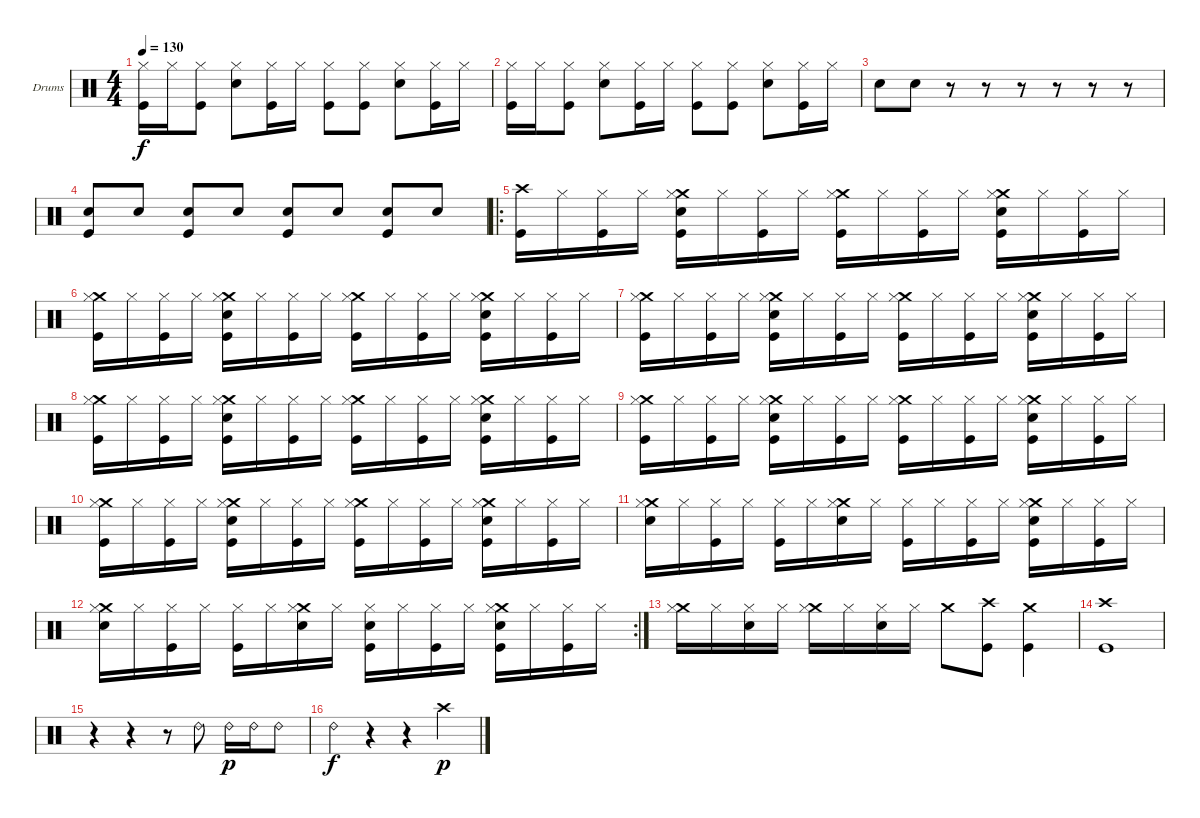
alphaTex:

\bracketExtendMode groupsimilarinstruments
\firstSystemTrackNameOrientation horizontal
\otherSystemsTrackNameOrientation horizontal
\track ("Drumkit" "Drums") {instrument percussion}
\staff {score}
\articulation defaults
\ts (4 4)
\tempo 130
\clef neutral
\ks c
("Hi-Hat (closed)" "Kick (hit)").16{dy f} "Hi-Hat (closed)".16 ("Hi-Hat (closed)" "Kick (hit)").8 ("Hi-Hat (closed)" "Snare (hit) 2").8 ("Hi-Hat (closed)" "Kick (hit)").16 "Hi-Hat (closed)".16 ("Hi-Hat (closed)" "Kick (hit)").8 ("Hi-Hat (closed)" "Kick (hit)").8 ("Hi-Hat (closed)" "Snare (hit) 2").8 ("Hi-Hat (closed)" "Kick (hit)").16 "Hi-Hat (closed)".16 |
("Hi-Hat (closed)" "Kick (hit)").16 "Hi-Hat (closed)".16 ("Hi-Hat (closed)" "Kick (hit)").8 ("Hi-Hat (closed)" "Snare (hit) 2").8 ("Hi-Hat (closed)" "Kick (hit)").16 "Hi-Hat (closed)".16 ("Hi-Hat (closed)" "Kick (hit)").8 ("Hi-Hat (closed)" "Kick (hit)").8 ("Hi-Hat (closed)" "Snare (hit) 2").8 ("Hi-Hat (closed)" "Kick (hit)").16 "Hi-Hat (closed)".16 |
"Snare (hit) 2".8 "Snare (hit) 2".8 r.8 r.8 r.8 r.8 r.8 r.8 |
("Snare (hit) 2" "Kick (hit)").8 "Snare (hit) 2".8 ("Snare (hit) 2" "Kick (hit)").8 "Snare (hit) 2".8 ("Snare (hit) 2" "Kick (hit)").8 "Snare (hit) 2".8 ("Snare (hit) 2" "Kick (hit)").8 "Snare (hit) 2".8 |
\ro
("Crash high (hit)" "Kick (hit)").16 "Hi-Hat (closed)".16 ("Hi-Hat (closed)" "Kick (hit)").16 "Hi-Hat (closed)".16 ("Crash medium (hit)" "Hi-Hat (closed)" "Snare (hit) 2" "Kick (hit)").16 "Hi-Hat (closed)".16 ("Hi-Hat (closed)" "Kick (hit)").16 "Hi-Hat (closed)".16 ("Crash medium (hit)" "Hi-Hat (closed)" "Kick (hit)").16 "Hi-Hat (closed)".16 ("Hi-Hat (closed)" "Kick (hit)").16 "Hi-Hat (closed)".16 ("Crash medium (hit)" "Hi-Hat (closed)" "Snare (hit) 2" "Kick (hit)").16 "Hi-Hat (closed)".16 ("Hi-Hat (closed)" "Kick (hit)").16 "Hi-Hat (closed)".16 |
("Crash medium (hit)" "Hi-Hat (closed)" "Kick (hit)").16 "Hi-Hat (closed)".16 ("Hi-Hat (closed)" "Kick (hit)").16 "Hi-Hat (closed)".16 ("Crash medium (hit)" "Hi-Hat (closed)" "Snare (hit) 2" "Kick (hit)").16 "Hi-Hat (closed)".16 ("Hi-Hat (closed)" "Kick (hit)").16 "Hi-Hat (closed)".16 ("Crash medium (hit)" "Hi-Hat (closed)" "Kick (hit)").16 "Hi-Hat (closed)".16 ("Hi-Hat (closed)" "Kick (hit)").16 "Hi-Hat (closed)".16 ("Crash medium (hit)" "Hi-Hat (closed)" "Snare (hit) 2" "Kick (hit)").16 "Hi-Hat (closed)".16 ("Hi-Hat (closed)" "Kick (hit)").16 "Hi-Hat (closed)".16 |
("Crash medium (hit)" "Hi-Hat (closed)" "Kick (hit)").16 "Hi-Hat (closed)".16 ("Hi-Hat (closed)" "Kick (hit)").16 "Hi-Hat (closed)".16 ("Crash medium (hit)" "Hi-Hat (closed)" "Snare (hit) 2" "Kick (hit)").16 "Hi-Hat (closed)".16 ("Hi-Hat (closed)" "Kick (hit)").16 "Hi-Hat (closed)".16 ("Crash medium (hit)" "Hi-Hat (closed)" "Kick (hit)").16 "Hi-Hat (closed)".16 ("Hi-Hat (closed)" "Kick (hit)").16 "Hi-Hat (closed)".16 ("Crash medium (hit)" "Hi-Hat (closed)" "Snare (hit) 2" "Kick (hit)").16 "Hi-Hat (closed)".16 ("Hi-Hat (closed)" "Kick (hit)").16 "Hi-Hat (closed)".16 |
("Crash medium (hit)" "Hi-Hat (closed)" "Kick (hit)").16 "Hi-Hat (closed)".16 ("Hi-Hat (closed)" "Kick (hit)").16 "Hi-Hat (closed)".16 ("Crash medium (hit)" "Hi-Hat (closed)" "Snare (hit) 2" "Kick (hit)").16 "Hi-Hat (closed)".16 ("Hi-Hat (closed)" "Kick (hit)").16 "Hi-Hat (closed)".16 ("Crash medium (hit)" "Hi-Hat (closed)" "Kick (hit)").16 "Hi-Hat (closed)".16 ("Hi-Hat (closed)" "Kick (hit)").16 "Hi-Hat (closed)".16 ("Crash medium (hit)" "Hi-Hat (closed)" "Snare (hit) 2" "Kick (hit)").16 "Hi-Hat (closed)".16 ("Hi-Hat (closed)" "Kick (hit)").16 "Hi-Hat (closed)".16 |
("Crash medium (hit)" "Hi-Hat (closed)" "Kick (hit)").16 "Hi-Hat (closed)".16 ("Hi-Hat (closed)" "Kick (hit)").16 "Hi-Hat (closed)".16 ("Crash medium (hit)" "Hi-Hat (closed)" "Snare (hit) 2" "Kick (hit)").16 "Hi-Hat (closed)".16 ("Hi-Hat (closed)" "Kick (hit)").16 "Hi-Hat (closed)".16 ("Crash medium (hit)" "Hi-Hat (closed)" "Kick (hit)").16 "Hi-Hat (closed)".16 ("Hi-Hat (closed)" "Kick (hit)").16 "Hi-Hat (closed)".16 ("Crash medium (hit)" "Hi-Hat (closed)" "Snare (hit) 2" "Kick (hit)").16 "Hi-Hat (closed)".16 ("Hi-Hat (closed)" "Kick (hit)").16 "Hi-Hat (closed)".16 |
("Crash medium (hit)" "Hi-Hat (closed)" "Kick (hit)").16 "Hi-Hat (closed)".16 ("Hi-Hat (closed)" "Kick (hit)").16 "Hi-Hat (closed)".16 ("Crash medium (hit)" "Hi-Hat (closed)" "Snare (hit) 2" "Kick (hit)").16 "Hi-Hat (closed)".16 ("Hi-Hat (closed)" "Kick (hit)").16 "Hi-Hat (closed)".16 ("Crash medium (hit)" "Hi-Hat (closed)" "Kick (hit)").16 "Hi-Hat (closed)".16 ("Hi-Hat (closed)" "Kick (hit)").16 "Hi-Hat (closed)".16 ("Crash medium (hit)" "Hi-Hat (closed)" "Snare (hit) 2" "Kick (hit)").16 "Hi-Hat (closed)".16 ("Hi-Hat (closed)" "Kick (hit)").16 "Hi-Hat (closed)".16 |
("Crash medium (hit)" "Hi-Hat (closed)" "Snare (hit) 2").16 "Hi-Hat (closed)".16 ("Hi-Hat (closed)" "Kick (hit)").16 "Hi-Hat (closed)".16 ("Hi-Hat (closed)" "Kick (hit)").16 "Hi-Hat (closed)".16 ("Crash medium (hit)" "Hi-Hat (closed)" "Snare (hit) 2").16 "Hi-Hat (closed)".16 ("Hi-Hat (closed)" "Kick (hit)").16 "Hi-Hat (closed)".16 ("Hi-Hat (closed)" "Kick (hit)").16 "Hi-Hat (closed)".16 ("Crash medium (hit)" "Hi-Hat (closed)" "Snare (hit) 2" "Kick (hit)").16 "Hi-Hat (closed)".16 ("Hi-Hat (closed)" "Kick (hit)").16 "Hi-Hat (closed)".16 |
\rc 2
("Crash medium (hit)" "Hi-Hat (closed)" "Snare (hit) 2").16 "Hi-Hat (closed)".16 ("Hi-Hat (closed)" "Kick (hit)").16 "Hi-Hat (closed)".16 ("Hi-Hat (closed)" "Kick (hit)").16 "Hi-Hat (closed)".16 ("Crash medium (hit)" "Hi-Hat (closed)" "Snare (hit) 2").16 "Hi-Hat (closed)".16 ("Hi-Hat (closed)" "Snare (hit) 2" "Kick (hit)").16 "Hi-Hat (closed)".16 ("Hi-Hat (closed)" "Kick (hit)").16 "Hi-Hat (closed)".16 ("Crash medium (hit)" "Hi-Hat (closed)" "Snare (hit) 2" "Kick (hit)").16 "Hi-Hat (closed)".16 ("Hi-Hat (closed)" "Kick (hit)").16 "Hi-Hat (closed)".16 |
("Crash medium (hit)" "Hi-Hat (closed)").16 "Hi-Hat (closed)".16 ("Hi-Hat (closed)" "Snare (hit) 2").16 "Hi-Hat (closed)".16 ("Crash medium (hit)" "Hi-Hat (closed)").16 "Hi-Hat (closed)".16 ("Hi-Hat (closed)" "Snare (hit) 2").16 "Hi-Hat (closed)".16 "Crash medium (hit)".8 ("Crash high (hit)" "Kick (hit)").8 ("Crash medium (hit)" "Kick (hit)").4 |
("Crash high (hit)" "Kick (hit)").1 |
r.4 r.4 r.8 "Ride (bell) 2".8 "Ride (bell) 2".16{dy p} "Ride (bell) 2".16 "Ride (bell) 2".8 |
"Ride (bell) 2".4{dy f} r.4 r.4 "Crash high (hit)".4{dy p}
